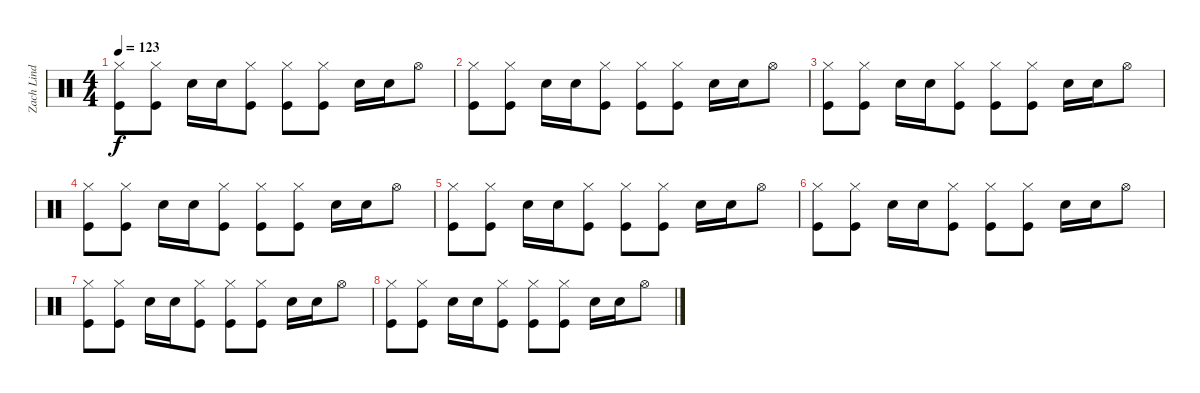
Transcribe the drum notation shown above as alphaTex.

\track ("Zach Lind (Drums)" "Zach Lind ") {instrument percussion}
\staff {score}
\articulation defaults
\ts (4 4)
\tempo 123
\clef neutral
\ks c
("Hi-Hat (closed)" "Kick (hit)").8{dy f} ("Hi-Hat (closed)" "Kick (hit)").8 "Snare (hit) 2".16 "Snare (hit) 2".16 ("Hi-Hat (closed)" "Kick (hit)").8 ("Hi-Hat (closed)" "Kick (hit)").8 ("Hi-Hat (closed)" "Kick (hit)").8 "Snare (hit) 2".16 "Snare (hit) 2".16 "Hi-Hat (open)".8 |
("Hi-Hat (closed)" "Kick (hit)").8 ("Hi-Hat (closed)" "Kick (hit)").8 "Snare (hit) 2".16 "Snare (hit) 2".16 ("Hi-Hat (closed)" "Kick (hit)").8 ("Hi-Hat (closed)" "Kick (hit)").8 ("Hi-Hat (closed)" "Kick (hit)").8 "Snare (hit) 2".16 "Snare (hit) 2".16 "Hi-Hat (open)".8 |
("Hi-Hat (closed)" "Kick (hit)").8 ("Hi-Hat (closed)" "Kick (hit)").8 "Snare (hit) 2".16 "Snare (hit) 2".16 ("Hi-Hat (closed)" "Kick (hit)").8 ("Hi-Hat (closed)" "Kick (hit)").8 ("Hi-Hat (closed)" "Kick (hit)").8 "Snare (hit) 2".16 "Snare (hit) 2".16 "Hi-Hat (open)".8 |
("Hi-Hat (closed)" "Kick (hit)").8 ("Hi-Hat (closed)" "Kick (hit)").8 "Snare (hit) 2".16 "Snare (hit) 2".16 ("Hi-Hat (closed)" "Kick (hit)").8 ("Hi-Hat (closed)" "Kick (hit)").8 ("Hi-Hat (closed)" "Kick (hit)").8 "Snare (hit) 2".16 "Snare (hit) 2".16 "Hi-Hat (open)".8 |
("Hi-Hat (closed)" "Kick (hit)").8 ("Hi-Hat (closed)" "Kick (hit)").8 "Snare (hit) 2".16 "Snare (hit) 2".16 ("Hi-Hat (closed)" "Kick (hit)").8 ("Hi-Hat (closed)" "Kick (hit)").8 ("Hi-Hat (closed)" "Kick (hit)").8 "Snare (hit) 2".16 "Snare (hit) 2".16 "Hi-Hat (open)".8 |
("Hi-Hat (closed)" "Kick (hit)").8 ("Hi-Hat (closed)" "Kick (hit)").8 "Snare (hit) 2".16 "Snare (hit) 2".16 ("Hi-Hat (closed)" "Kick (hit)").8 ("Hi-Hat (closed)" "Kick (hit)").8 ("Hi-Hat (closed)" "Kick (hit)").8 "Snare (hit) 2".16 "Snare (hit) 2".16 "Hi-Hat (open)".8 |
("Hi-Hat (closed)" "Kick (hit)").8 ("Hi-Hat (closed)" "Kick (hit)").8 "Snare (hit) 2".16 "Snare (hit) 2".16 ("Hi-Hat (closed)" "Kick (hit)").8 ("Hi-Hat (closed)" "Kick (hit)").8 ("Hi-Hat (closed)" "Kick (hit)").8 "Snare (hit) 2".16 "Snare (hit) 2".16 "Hi-Hat (open)".8 |
("Hi-Hat (closed)" "Kick (hit)").8 ("Hi-Hat (closed)" "Kick (hit)").8 "Snare (hit) 2".16 "Snare (hit) 2".16 ("Hi-Hat (closed)" "Kick (hit)").8 ("Hi-Hat (closed)" "Kick (hit)").8 ("Hi-Hat (closed)" "Kick (hit)").8 "Snare (hit) 2".16 "Snare (hit) 2".16 "Hi-Hat (open)".8
